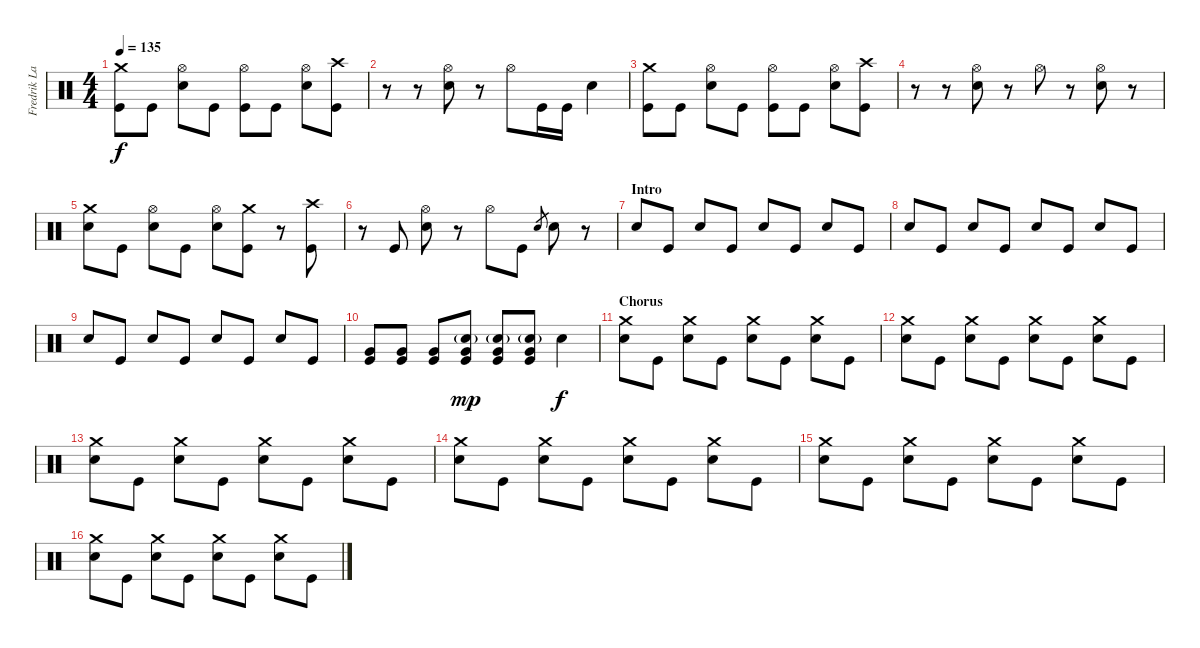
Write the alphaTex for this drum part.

\track ("Fredrik Larzon" "Fredrik La") {instrument percussion}
\staff {score}
\articulation defaults
\ts (4 4)
\tempo 135
\clef neutral
\ks c
("Crash medium (hit)" "Kick (hit)").8{dy f} "Kick (hit)".8 ("Hi-Hat (open)" "Electric Snare (hit)").8 "Kick (hit)".8 ("Hi-Hat (open)" "Kick (hit)").8 "Kick (hit)".8 ("Hi-Hat (open)" "Electric Snare (hit)").8 ("Crash high (hit)" "Kick (hit)").8 |
r.8 r.8 ("Hi-Hat (open)" "Electric Snare (hit)").8 r.8 "Hi-Hat (open)".8 "Kick (hit)".16 "Kick (hit)".16 "Electric Snare (hit)".4 |
("Crash medium (hit)" "Kick (hit)").8 "Kick (hit)".8 ("Hi-Hat (open)" "Electric Snare (hit)").8 "Kick (hit)".8 ("Hi-Hat (open)" "Kick (hit)").8 "Kick (hit)".8 ("Hi-Hat (open)" "Electric Snare (hit)").8 ("Crash high (hit)" "Kick (hit)").8 |
r.8 r.8 ("Hi-Hat (open)" "Electric Snare (hit)").8 r.8 "Hi-Hat (open)".8 r.8 ("Hi-Hat (open)" "Electric Snare (hit)").8 r.8 |
("Crash medium (hit)" "Electric Snare (hit)").8 "Kick (hit)".8 ("Hi-Hat (open)" "Electric Snare (hit)").8 "Kick (hit)".8 ("Hi-Hat (open)" "Electric Snare (hit)").8 ("Crash medium (hit)" "Kick (hit)").8 r.8 ("Crash high (hit)" "Kick (hit)").8 |
r.8 "Kick (hit)".8 ("Hi-Hat (open)" "Electric Snare (hit)").8 r.8 "Hi-Hat (open)".8 "Kick (hit)".8 "Electric Snare (hit)".8{gr} "Electric Snare (hit)".8 r.8 |
\section ("" "Intro")
"Electric Snare (hit)".8 "Kick (hit)".8 "Electric Snare (hit)".8 "Kick (hit)".8 "Electric Snare (hit)".8 "Kick (hit)".8 "Electric Snare (hit)".8 "Kick (hit)".8 |
"Electric Snare (hit)".8 "Kick (hit)".8 "Electric Snare (hit)".8 "Kick (hit)".8 "Electric Snare (hit)".8 "Kick (hit)".8 "Electric Snare (hit)".8 "Kick (hit)".8 |
"Electric Snare (hit)".8 "Kick (hit)".8 "Electric Snare (hit)".8 "Kick (hit)".8 "Electric Snare (hit)".8 "Kick (hit)".8 "Electric Snare (hit)".8 "Kick (hit)".8 |
("Very Low Tom (hit)" "Kick (hit)").8 ("Very Low Tom (hit)" "Kick (hit)").8 ("Very Low Tom (hit)" "Kick (hit)").8 ("Electric Snare (hit)"{g} "Very Low Tom (hit)" "Kick (hit)").8{dy mp} ("Electric Snare (hit)"{g} "Very Low Tom (hit)" "Kick (hit)").8 ("Electric Snare (hit)"{g} "Very Low Tom (hit)" "Kick (hit)").8 "Electric Snare (hit)".4{dy f} |
\section ("" "Chorus")
("Crash medium (hit)" "Electric Snare (hit)").8 "Kick (hit)".8 ("Crash medium (hit)" "Electric Snare (hit)").8 "Kick (hit)".8 ("Crash medium (hit)" "Electric Snare (hit)").8 "Kick (hit)".8 ("Crash medium (hit)" "Electric Snare (hit)").8 "Kick (hit)".8 |
("Crash medium (hit)" "Electric Snare (hit)").8 "Kick (hit)".8 ("Crash medium (hit)" "Electric Snare (hit)").8 "Kick (hit)".8 ("Crash medium (hit)" "Electric Snare (hit)").8 "Kick (hit)".8 ("Crash medium (hit)" "Electric Snare (hit)").8 "Kick (hit)".8 |
("Crash medium (hit)" "Electric Snare (hit)").8 "Kick (hit)".8 ("Crash medium (hit)" "Electric Snare (hit)").8 "Kick (hit)".8 ("Crash medium (hit)" "Electric Snare (hit)").8 "Kick (hit)".8 ("Crash medium (hit)" "Electric Snare (hit)").8 "Kick (hit)".8 |
("Crash medium (hit)" "Electric Snare (hit)").8 "Kick (hit)".8 ("Crash medium (hit)" "Electric Snare (hit)").8 "Kick (hit)".8 ("Crash medium (hit)" "Electric Snare (hit)").8 "Kick (hit)".8 ("Crash medium (hit)" "Electric Snare (hit)").8 "Kick (hit)".8 |
("Crash medium (hit)" "Electric Snare (hit)").8 "Kick (hit)".8 ("Crash medium (hit)" "Electric Snare (hit)").8 "Kick (hit)".8 ("Crash medium (hit)" "Electric Snare (hit)").8 "Kick (hit)".8 ("Crash medium (hit)" "Electric Snare (hit)").8 "Kick (hit)".8 |
("Crash medium (hit)" "Electric Snare (hit)").8 "Kick (hit)".8 ("Crash medium (hit)" "Electric Snare (hit)").8 "Kick (hit)".8 ("Crash medium (hit)" "Electric Snare (hit)").8 "Kick (hit)".8 ("Crash medium (hit)" "Electric Snare (hit)").8 "Kick (hit)".8
